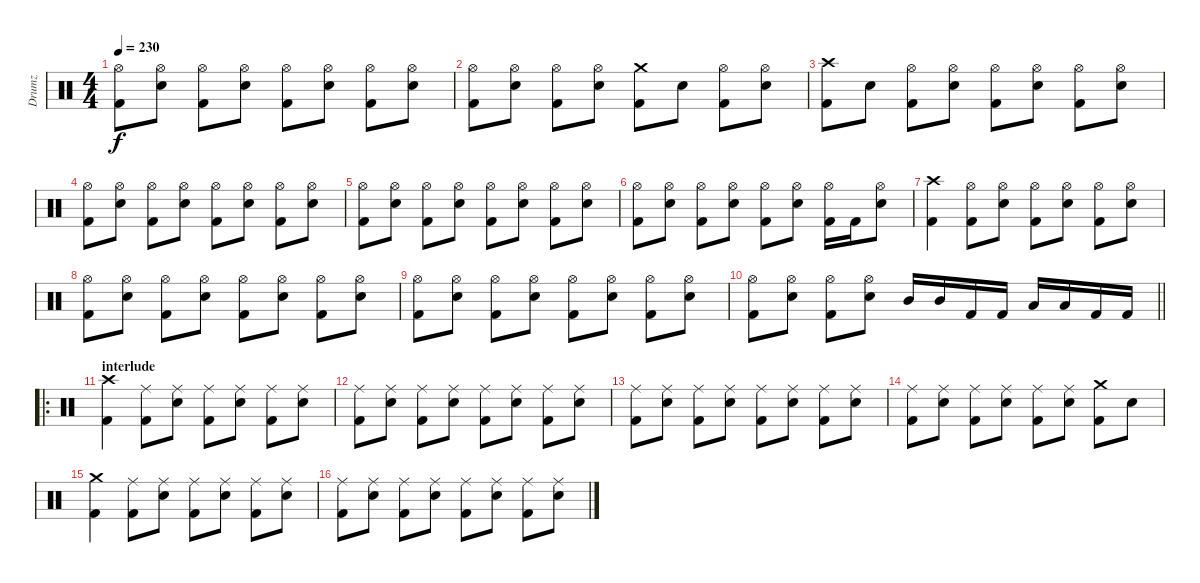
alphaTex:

\track ("Drumz" "Drumz") {instrument percussion}
\staff {score}
\articulation defaults
\ts (4 4)
\tempo 230
\clef neutral
\ks c
("Hi-Hat (open)" "Kick (hit) 2").8{dy f} ("Hi-Hat (open)" "Electric Snare (hit)").8 ("Hi-Hat (open)" "Kick (hit) 2").8 ("Hi-Hat (open)" "Electric Snare (hit)").8 ("Hi-Hat (open)" "Kick (hit) 2").8 ("Hi-Hat (open)" "Electric Snare (hit)").8 ("Hi-Hat (open)" "Kick (hit) 2").8 ("Hi-Hat (open)" "Electric Snare (hit)").8 |
("Hi-Hat (open)" "Kick (hit) 2").8 ("Hi-Hat (open)" "Electric Snare (hit)").8 ("Hi-Hat (open)" "Kick (hit) 2").8 ("Hi-Hat (open)" "Electric Snare (hit)").8 ("Crash medium (hit)" "Kick (hit) 2").8 "Electric Snare (hit)".8 ("Hi-Hat (open)" "Kick (hit) 2").8 ("Hi-Hat (open)" "Electric Snare (hit)").8 |
("Crash high (hit)" "Kick (hit) 2").8 "Electric Snare (hit)".8 ("Hi-Hat (open)" "Kick (hit) 2").8 ("Hi-Hat (open)" "Electric Snare (hit)").8 ("Hi-Hat (open)" "Kick (hit) 2").8 ("Hi-Hat (open)" "Electric Snare (hit)").8 ("Hi-Hat (open)" "Kick (hit) 2").8 ("Hi-Hat (open)" "Electric Snare (hit)").8 |
("Hi-Hat (open)" "Kick (hit) 2").8 ("Hi-Hat (open)" "Electric Snare (hit)").8 ("Hi-Hat (open)" "Kick (hit) 2").8 ("Hi-Hat (open)" "Electric Snare (hit)").8 ("Hi-Hat (open)" "Kick (hit) 2").8 ("Hi-Hat (open)" "Electric Snare (hit)").8 ("Hi-Hat (open)" "Kick (hit) 2").8 ("Hi-Hat (open)" "Electric Snare (hit)").8 |
("Hi-Hat (open)" "Kick (hit) 2").8 ("Hi-Hat (open)" "Electric Snare (hit)").8 ("Hi-Hat (open)" "Kick (hit) 2").8 ("Hi-Hat (open)" "Electric Snare (hit)").8 ("Hi-Hat (open)" "Kick (hit) 2").8 ("Hi-Hat (open)" "Electric Snare (hit)").8 ("Hi-Hat (open)" "Kick (hit) 2").8 ("Hi-Hat (open)" "Electric Snare (hit)").8 |
("Hi-Hat (open)" "Kick (hit) 2").8 ("Hi-Hat (open)" "Electric Snare (hit)").8 ("Hi-Hat (open)" "Kick (hit) 2").8 ("Hi-Hat (open)" "Electric Snare (hit)").8 ("Hi-Hat (open)" "Kick (hit) 2").8 ("Hi-Hat (open)" "Electric Snare (hit)").8 ("Hi-Hat (open)" "Kick (hit) 2").16 "Kick (hit) 2".16 ("Hi-Hat (open)" "Electric Snare (hit)").8 |
("Crash high (hit)" "Kick (hit) 2").4 ("Hi-Hat (open)" "Kick (hit) 2").8 ("Hi-Hat (open)" "Electric Snare (hit)").8 ("Hi-Hat (open)" "Kick (hit) 2").8 ("Hi-Hat (open)" "Electric Snare (hit)").8 ("Hi-Hat (open)" "Kick (hit) 2").8 ("Hi-Hat (open)" "Electric Snare (hit)").8 |
("Hi-Hat (open)" "Kick (hit) 2").8 ("Hi-Hat (open)" "Electric Snare (hit)").8 ("Hi-Hat (open)" "Kick (hit) 2").8 ("Hi-Hat (open)" "Electric Snare (hit)").8 ("Hi-Hat (open)" "Kick (hit) 2").8 ("Hi-Hat (open)" "Electric Snare (hit)").8 ("Hi-Hat (open)" "Kick (hit) 2").8 ("Hi-Hat (open)" "Electric Snare (hit)").8 |
("Hi-Hat (open)" "Kick (hit) 2").8 ("Hi-Hat (open)" "Electric Snare (hit)").8 ("Hi-Hat (open)" "Kick (hit) 2").8 ("Hi-Hat (open)" "Electric Snare (hit)").8 ("Hi-Hat (open)" "Kick (hit) 2").8 ("Hi-Hat (open)" "Electric Snare (hit)").8 ("Hi-Hat (open)" "Kick (hit) 2").8 ("Hi-Hat (open)" "Electric Snare (hit)").8 |
\barLineRight lightlight
("Hi-Hat (open)" "Kick (hit) 2").8 ("Hi-Hat (open)" "Electric Snare (hit)").8 ("Hi-Hat (open)" "Kick (hit) 2").8 ("Hi-Hat (open)" "Electric Snare (hit)").8 "Mid Tom (hit)".16 "Mid Tom (hit)".16 "Kick (hit) 2".16 "Kick (hit) 2".16 "Low Tom (hit)".16 "Low Tom (hit)".16 "Kick (hit) 2".16 "Kick (hit) 2".16 |
\ro
\section ("" "interlude")
("Crash high (hit)" "Kick (hit) 2").4 ("Ride (middle)" "Kick (hit) 2").8 ("Ride (middle)" "Electric Snare (hit)").8 ("Ride (middle)" "Kick (hit) 2").8 ("Ride (middle)" "Electric Snare (hit)").8 ("Ride (middle)" "Kick (hit) 2").8 ("Ride (middle)" "Electric Snare (hit)").8 |
("Ride (middle)" "Kick (hit) 2").8 ("Ride (middle)" "Electric Snare (hit)").8 ("Ride (middle)" "Kick (hit) 2").8 ("Ride (middle)" "Electric Snare (hit)").8 ("Ride (middle)" "Kick (hit) 2").8 ("Ride (middle)" "Electric Snare (hit)").8 ("Ride (middle)" "Kick (hit) 2").8 ("Ride (middle)" "Electric Snare (hit)").8 |
("Ride (middle)" "Kick (hit) 2").8 ("Ride (middle)" "Electric Snare (hit)").8 ("Ride (middle)" "Kick (hit) 2").8 ("Ride (middle)" "Electric Snare (hit)").8 ("Ride (middle)" "Kick (hit) 2").8 ("Ride (middle)" "Electric Snare (hit)").8 ("Ride (middle)" "Kick (hit) 2").8 ("Ride (middle)" "Electric Snare (hit)").8 |
("Ride (middle)" "Kick (hit) 2").8 ("Ride (middle)" "Electric Snare (hit)").8 ("Ride (middle)" "Kick (hit) 2").8 ("Ride (middle)" "Electric Snare (hit)").8 ("Ride (middle)" "Kick (hit) 2").8 ("Ride (middle)" "Electric Snare (hit)").8 ("Crash medium (hit)" "Kick (hit) 2").8 "Electric Snare (hit)".8 |
("Crash medium (hit)" "Kick (hit) 2").4 ("Ride (middle)" "Kick (hit) 2").8 ("Ride (middle)" "Electric Snare (hit)").8 ("Ride (middle)" "Kick (hit) 2").8 ("Ride (middle)" "Electric Snare (hit)").8 ("Ride (middle)" "Kick (hit) 2").8 ("Ride (middle)" "Electric Snare (hit)").8 |
("Ride (middle)" "Kick (hit) 2").8 ("Ride (middle)" "Electric Snare (hit)").8 ("Ride (middle)" "Kick (hit) 2").8 ("Ride (middle)" "Electric Snare (hit)").8 ("Ride (middle)" "Kick (hit) 2").8 ("Ride (middle)" "Electric Snare (hit)").8 ("Ride (middle)" "Kick (hit) 2").8 ("Ride (middle)" "Electric Snare (hit)").8
